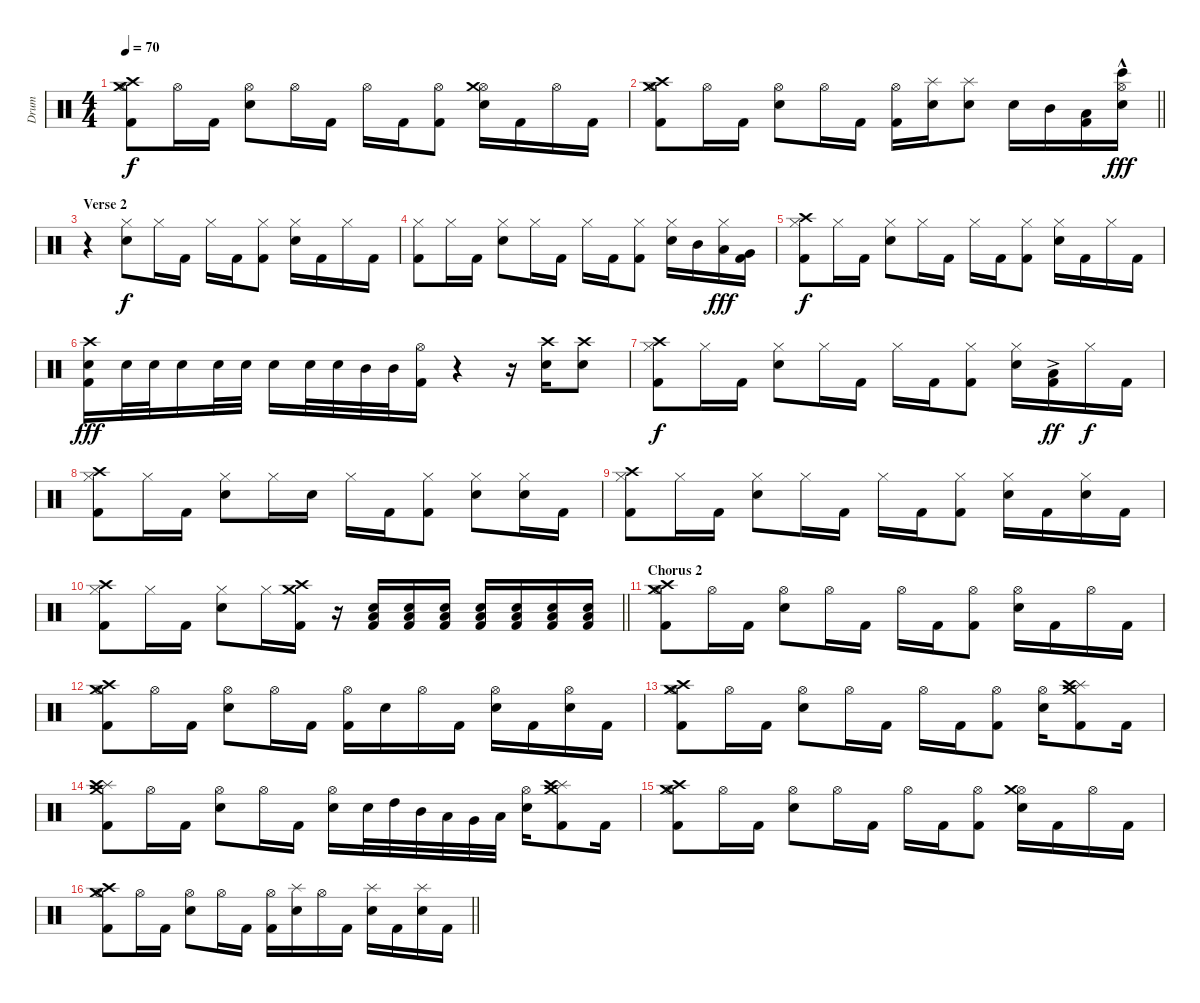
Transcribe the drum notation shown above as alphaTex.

\track ("Drum" "Drum") {instrument percussion}
\staff {score}
\articulation defaults
\ts (4 4)
\tempo 70
\clef neutral
\ks c
("Hi-Hat (open)" "Crash high (hit)" "Crash medium (hit)" "Kick (hit) 2").8{dy f} "Hi-Hat (open)".16 "Kick (hit) 2".16 ("Hi-Hat (open)" "Electric Snare (hit)").8 "Hi-Hat (open)".16 "Kick (hit) 2".16 "Hi-Hat (open)".16 "Kick (hit) 2".16 ("Hi-Hat (open)" "Kick (hit) 2").8 ("Hi-Hat (open)" "Crash medium (hit)" "Electric Snare (hit)").16 "Kick (hit) 2".16 "Hi-Hat (open)".16 "Kick (hit) 2".16 |
\barLineRight lightlight
("Hi-Hat (open)" "Crash high (hit)" "Crash medium (hit)" "Kick (hit) 2").8 "Hi-Hat (open)".16 "Kick (hit) 2".16 ("Hi-Hat (open)" "Electric Snare (hit)").8 "Hi-Hat (open)".16 "Kick (hit) 2".16 ("Hi-Hat (open)" "Kick (hit) 2").16 ("Splash (hit)" "Electric Snare (hit)").16 ("Splash (hit)" "Electric Snare (hit)").8 "Electric Snare (hit)".16 "Mid Tom (hit)".16 ("Low Tom (hit)" "Kick (hit) 2").16 ("Hi-Hat (open)" "Bongo High (hit)"{hac} "Electric Snare (hit)").16{dy fff} |
\section ("" "Verse 2")
r.4 ("Hi-Hat (closed)" "Snare (hit) 2").8{dy f} "Hi-Hat (closed)".16 "Kick (hit) 2".16 "Hi-Hat (closed)".16 "Kick (hit) 2".16 ("Hi-Hat (closed)" "Kick (hit) 2").8 ("Hi-Hat (closed)" "Snare (hit) 2").16 "Kick (hit) 2".16 "Hi-Hat (closed)".16 "Kick (hit) 2".16 |
("Hi-Hat (closed)" "Kick (hit) 2").8 "Hi-Hat (closed)".16 "Kick (hit) 2".16 ("Hi-Hat (closed)" "Snare (hit) 2").8 "Hi-Hat (closed)".16 "Kick (hit) 2".16 "Hi-Hat (closed)".16 "Kick (hit) 2".16 ("Hi-Hat (closed)" "Kick (hit) 2").8 ("Hi-Hat (closed)" "Snare (hit) 2").16 "Mid Tom (hit)".16 ("Hi-Hat (closed)" "Low Tom (hit)").16{dy fff} ("Very Low Tom (hit)" "Kick (hit) 2").16 |
("Hi-Hat (closed)" "Crash high (hit)" "Kick (hit) 2").8{dy f} "Hi-Hat (closed)".16 "Kick (hit) 2".16 ("Hi-Hat (closed)" "Snare (hit) 2").8 "Hi-Hat (closed)".16 "Kick (hit) 2".16 "Hi-Hat (closed)".16 "Kick (hit) 2".16 ("Hi-Hat (closed)" "Kick (hit) 2").8 ("Hi-Hat (closed)" "Snare (hit) 2").16 "Kick (hit) 2".16 "Hi-Hat (closed)".16 "Kick (hit) 2".16 |
("Crash high (hit)" "Snare (hit) 2" "Kick (hit) 2").16{dy fff} "Snare (hit) 2".32 "Snare (hit) 2".32 "Snare (hit) 2".16 "Snare (hit) 2".32 "Snare (hit) 2".32 "Snare (hit) 2".16 "Snare (hit) 2".32 "Snare (hit) 2".32 "Mid Tom (hit)".32 "Mid Tom (hit)".32 ("Hi-Hat (open)" "Kick (hit) 2").16 r.4 r.16 ("Crash high (hit)" "Snare (hit) 2").16 ("Crash high (hit)" "Snare (hit) 2").8 |
("Hi-Hat (closed)" "Crash high (hit)" "Kick (hit) 2").8{dy f} "Hi-Hat (closed)".16 "Kick (hit) 2".16 ("Hi-Hat (closed)" "Snare (hit) 2").8 "Hi-Hat (closed)".16 "Kick (hit) 2".16 "Hi-Hat (closed)".16 "Kick (hit) 2".16 ("Hi-Hat (closed)" "Kick (hit) 2").8 ("Hi-Hat (closed)" "Snare (hit) 2").16 ("Low Tom (hit)"{ac} "Kick (hit) 2").16{dy ff} "Hi-Hat (closed)".16{dy f} "Kick (hit) 2".16 |
("Hi-Hat (closed)" "Crash high (hit)" "Kick (hit) 2").8 "Hi-Hat (closed)".16 "Kick (hit) 2".16 ("Hi-Hat (closed)" "Snare (hit) 2").8 "Hi-Hat (closed)".16 "Snare (hit) 2".16 "Hi-Hat (closed)".16 "Kick (hit) 2".16 ("Hi-Hat (closed)" "Kick (hit) 2").8 ("Hi-Hat (closed)" "Snare (hit) 2").8 ("Hi-Hat (closed)" "Snare (hit) 2").16 "Kick (hit) 2".16 |
("Hi-Hat (closed)" "Crash high (hit)" "Kick (hit) 2").8 "Hi-Hat (closed)".16 "Kick (hit) 2".16 ("Hi-Hat (closed)" "Snare (hit) 2").8 "Hi-Hat (closed)".16 "Kick (hit) 2".16 "Hi-Hat (closed)".16 "Kick (hit) 2".16 ("Hi-Hat (closed)" "Kick (hit) 2").8 ("Hi-Hat (closed)" "Snare (hit) 2").16 "Kick (hit) 2".16 ("Hi-Hat (closed)" "Snare (hit) 2").16 "Kick (hit) 2".16 |
\barLineRight lightlight
("Hi-Hat (closed)" "Crash high (hit)" "Kick (hit) 2").8 "Hi-Hat (closed)".16 "Kick (hit) 2".16 ("Hi-Hat (closed)" "Snare (hit) 2").8 "Hi-Hat (closed)".16 ("Crash high (hit)" "Crash medium (hit)" "Kick (hit) 2").16 r.16 ("Low Floor Tom (hit)" "Electric Snare (hit)" "Kick (hit) 2").16 ("Low Floor Tom (hit)" "Electric Snare (hit)" "Kick (hit) 2").16 ("Low Floor Tom (hit)" "Electric Snare (hit)" "Kick (hit) 2").16 ("Low Floor Tom (hit)" "Electric Snare (hit)" "Kick (hit) 2").16 ("Low Floor Tom (hit)" "Electric Snare (hit)" "Kick (hit) 2").16 ("Low Floor Tom (hit)" "Electric Snare (hit)" "Kick (hit) 2").16 ("Low Floor Tom (hit)" "Electric Snare (hit)" "Kick (hit) 2").16 |
\section ("" "Chorus 2")
("Hi-Hat (open)" "Crash high (hit)" "Crash medium (hit)" "Kick (hit) 2").8 "Hi-Hat (open)".16 "Kick (hit) 2".16 ("Hi-Hat (open)" "Electric Snare (hit)").8 "Hi-Hat (open)".16 "Kick (hit) 2".16 "Hi-Hat (open)".16 "Kick (hit) 2".16 ("Hi-Hat (open)" "Kick (hit) 2").8 ("Hi-Hat (open)" "Electric Snare (hit)").16 "Kick (hit) 2".16 "Hi-Hat (open)".16 "Kick (hit) 2".16 |
("Hi-Hat (open)" "Crash high (hit)" "Crash medium (hit)" "Kick (hit) 2").8 "Hi-Hat (open)".16 "Kick (hit) 2".16 ("Hi-Hat (open)" "Electric Snare (hit)").8 "Hi-Hat (open)".16 "Kick (hit) 2".16 ("Hi-Hat (open)" "Kick (hit) 2").16 "Electric Snare (hit)".16 "Hi-Hat (open)".16 "Kick (hit) 2".16 ("Hi-Hat (open)" "Electric Snare (hit)").16 "Kick (hit) 2".16 ("Hi-Hat (open)" "Electric Snare (hit)").16 "Kick (hit) 2".16 |
("Hi-Hat (open)" "Crash high (hit)" "Crash medium (hit)" "Kick (hit) 2").8 "Hi-Hat (open)".16 "Kick (hit) 2".16 ("Hi-Hat (open)" "Electric Snare (hit)").8 "Hi-Hat (open)".16 "Kick (hit) 2".16 "Hi-Hat (open)".16 "Kick (hit) 2".16 ("Hi-Hat (open)" "Kick (hit) 2").8 ("Hi-Hat (open)" "Electric Snare (hit)").16 ("Splash (hit)" "Crash high (hit)" "Crash medium (hit)" "Kick (hit) 2").8 "Kick (hit) 2".16 |
("Splash (hit)" "Crash high (hit)" "Crash medium (hit)" "Kick (hit) 2").8 "Hi-Hat (open)".16 "Kick (hit) 2".16 ("Hi-Hat (open)" "Electric Snare (hit)").8 "Hi-Hat (open)".16 "Kick (hit) 2".16 ("Hi-Hat (open)" "Electric Snare (hit)").16 "Electric Snare (hit)".32 "High Tom (hit)".32 "Mid Tom (hit)".32 "Low Tom (hit)".32 "Very Low Tom (hit)".32 "Low Floor Tom (hit)".32 ("Hi-Hat (open)" "Electric Snare (hit)").16 ("Splash (hit)" "Crash high (hit)" "Crash medium (hit)" "Kick (hit) 2").8 "Kick (hit) 2".16 |
("Hi-Hat (open)" "Crash high (hit)" "Crash medium (hit)" "Kick (hit) 2").8 "Hi-Hat (open)".16 "Kick (hit) 2".16 ("Hi-Hat (open)" "Electric Snare (hit)").8 "Hi-Hat (open)".16 "Kick (hit) 2".16 "Hi-Hat (open)".16 "Kick (hit) 2".16 ("Hi-Hat (open)" "Kick (hit) 2").8 ("Hi-Hat (open)" "Crash medium (hit)" "Electric Snare (hit)").16 "Kick (hit) 2".16 "Hi-Hat (open)".16 "Kick (hit) 2".16 |
\barLineRight lightlight
("Hi-Hat (open)" "Crash high (hit)" "Crash medium (hit)" "Kick (hit) 2").8 "Hi-Hat (open)".16 "Kick (hit) 2".16 ("Hi-Hat (open)" "Electric Snare (hit)").8 "Hi-Hat (open)".16 "Kick (hit) 2".16 ("Hi-Hat (open)" "Kick (hit) 2").16 ("Splash (hit)" "Electric Snare (hit)").16 "Hi-Hat (open)".16 "Kick (hit) 2".16 ("Splash (hit)" "Electric Snare (hit)").16 "Kick (hit) 2".16 ("Splash (hit)" "Electric Snare (hit)").16 "Kick (hit) 2".16
